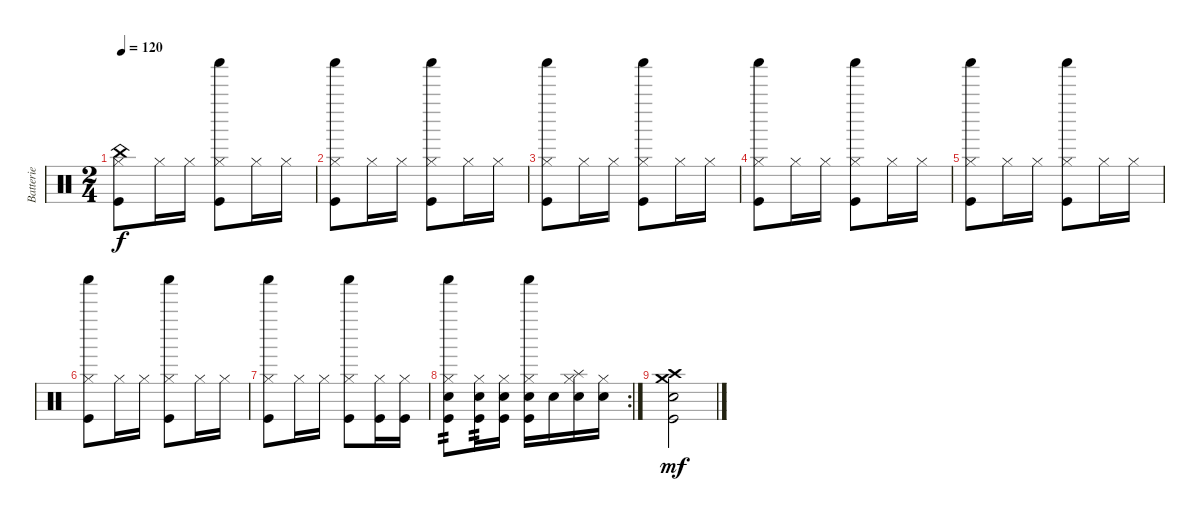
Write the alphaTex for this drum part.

\track ("Batterie" "Batterie") {instrument percussion}
\staff {score}
\articulation defaults
\ts (2 4)
\tempo 120
\clef neutral
\ks c
("China (hit)" "Hi-Hat (closed)" "Kick (hit)").8{dy f} "Hi-Hat (closed)".16 "Hi-Hat (closed)".16 ("Shaker (hit)" "Hi-Hat (closed)" "Kick (hit)").8 "Hi-Hat (closed)".16 "Hi-Hat (closed)".16 |
("Shaker (hit)" "Hi-Hat (closed)" "Kick (hit)").8 "Hi-Hat (closed)".16 "Hi-Hat (closed)".16 ("Shaker (hit)" "Hi-Hat (closed)" "Kick (hit)").8 "Hi-Hat (closed)".16 "Hi-Hat (closed)".16 |
("Shaker (hit)" "Hi-Hat (closed)" "Kick (hit)").8 "Hi-Hat (closed)".16 "Hi-Hat (closed)".16 ("Shaker (hit)" "Hi-Hat (closed)" "Kick (hit)").8 "Hi-Hat (closed)".16 "Hi-Hat (closed)".16 |
("Shaker (hit)" "Hi-Hat (closed)" "Kick (hit)").8 "Hi-Hat (closed)".16 "Hi-Hat (closed)".16 ("Shaker (hit)" "Hi-Hat (closed)" "Kick (hit)").8 "Hi-Hat (closed)".16 "Hi-Hat (closed)".16 |
("Shaker (hit)" "Hi-Hat (closed)" "Kick (hit)").8 "Hi-Hat (closed)".16 "Hi-Hat (closed)".16 ("Shaker (hit)" "Hi-Hat (closed)" "Kick (hit)").8 "Hi-Hat (closed)".16 "Hi-Hat (closed)".16 |
("Shaker (hit)" "Hi-Hat (closed)" "Kick (hit)").8 "Hi-Hat (closed)".16 "Hi-Hat (closed)".16 ("Shaker (hit)" "Hi-Hat (closed)" "Kick (hit)").8 "Hi-Hat (closed)".16 "Hi-Hat (closed)".16 |
("Shaker (hit)" "Hi-Hat (closed)" "Kick (hit)").8 "Hi-Hat (closed)".16 "Hi-Hat (closed)".16 ("Shaker (hit)" "Hi-Hat (closed)" "Kick (hit)").8 ("Hi-Hat (closed)" "Kick (hit)").16 ("Hi-Hat (closed)" "Kick (hit)").16 |
\rc 2
("Shaker (hit)" "Hi-Hat (closed)" "Electric Snare (hit)" "Kick (hit)").8{tp 2} ("Hi-Hat (closed)" "Electric Snare (hit)" "Kick (hit)").16{tp 2} ("Hi-Hat (closed)" "Electric Snare (hit)" "Kick (hit)").16 ("Shaker (hit)" "Hi-Hat (closed)" "Electric Snare (hit)" "Kick (hit)").16 "Electric Snare (hit)".16 ("Splash (hit)" "Hi-Hat (closed)" "Electric Snare (hit)").16 ("Hi-Hat (closed)" "Electric Snare (hit)").16 |
("Crash medium (hit)" "Electric Snare (hit)" "Crash high (hit)" "Kick (hit)").2{dy mf}
